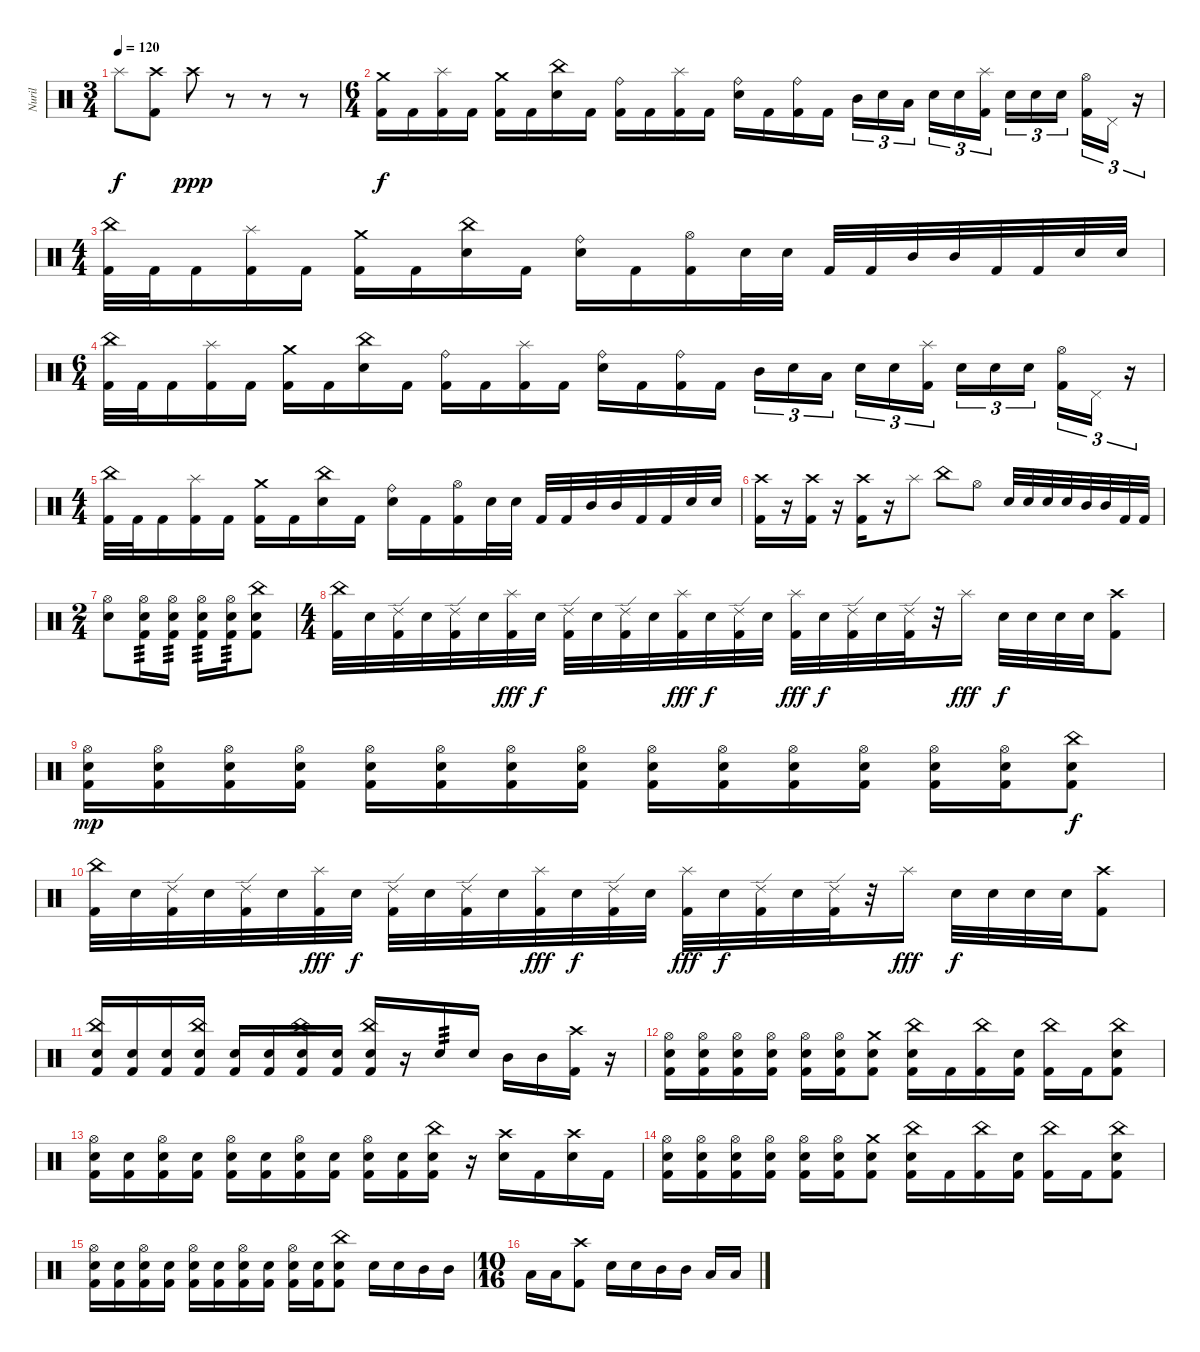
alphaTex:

\track ("Nuril" "Nuril") {instrument percussion}
\staff {score}
\articulation defaults
\ts (3 4)
\tempo 120
\clef neutral
\ks c "Splash (hit)".8{dy f}
("Crash high (hit)" "Kick (hit) 2").8 "Crash high (hit)".8{dy ppp} r.8 r.8 r.8 |
\ts (6 4)
("Crash medium (hit)" "Kick (hit) 2").16{dy f} "Kick (hit) 2".16 ("Splash (hit)" "Kick (hit) 2").16 "Kick (hit) 2".16 ("Crash medium (hit)" "Kick (hit) 2").16 "Kick (hit) 2".16 ("China (hit)" "Electric Snare (hit)").16 "Kick (hit) 2".16 ("Ride (bell)" "Kick (hit) 2").16 "Kick (hit) 2".16 ("Splash (hit)" "Kick (hit) 2").16 "Kick (hit) 2".16 ("Ride (bell)" "Electric Snare (hit)").16 "Kick (hit) 2".16 ("Ride (bell)" "Kick (hit) 2").16 "Kick (hit) 2".16{beam splitsecondary} "Mid Tom (hit)".16{tu (3 2)} "Electric Snare (hit)".16{tu (3 2)} "Low Tom (hit)".16{tu (3 2) beam splitsecondary} "Electric Snare (hit)".16{tu (3 2)} "Electric Snare (hit)".16{tu (3 2)} ("Splash (hit)" "Kick (hit) 2").16{tu (3 2) beam splitsecondary} "Electric Snare (hit)".16{tu (3 2)} "Electric Snare (hit)".16{tu (3 2)} "Electric Snare (hit)".16{tu (3 2) beam splitsecondary} ("Hi-Hat (open)" "Kick (hit) 2").16{tu (3 2)} "Pedal Hi-Hat (hit)".16{tu (3 2)} r.16{tu (3 2)} |
\ts (4 4)
("China (hit)" "Kick (hit) 2").32 "Kick (hit) 2".32 "Kick (hit) 2".16 ("Splash (hit)" "Kick (hit) 2").16 "Kick (hit) 2".16 ("Crash medium (hit)" "Kick (hit) 2").16 "Kick (hit) 2".16 ("China (hit)" "Electric Snare (hit)").16 "Kick (hit) 2".16 ("Ride (bell)" "Electric Snare (hit)").16 "Kick (hit) 2".16 ("Hi-Hat (open)" "Kick (hit) 2").16 "Electric Snare (hit)".32 "Electric Snare (hit)".32 "Kick (hit) 2".32 "Kick (hit) 2".32 "Mid Tom (hit)".32 "Mid Tom (hit)".32 "Kick (hit) 2".32 "Kick (hit) 2".32 "Electric Snare (hit)".32 "Electric Snare (hit)".32 |
\ts (6 4)
("China (hit)" "Kick (hit) 2").32 "Kick (hit) 2".32 "Kick (hit) 2".16 ("Splash (hit)" "Kick (hit) 2").16 "Kick (hit) 2".16 ("Crash medium (hit)" "Kick (hit) 2").16 "Kick (hit) 2".16 ("China (hit)" "Electric Snare (hit)").16 "Kick (hit) 2".16 ("Ride (bell)" "Kick (hit) 2").16 "Kick (hit) 2".16 ("Splash (hit)" "Kick (hit) 2").16 "Kick (hit) 2".16 ("Ride (bell)" "Electric Snare (hit)").16 "Kick (hit) 2".16 ("Ride (bell)" "Kick (hit) 2").16 "Kick (hit) 2".16{beam splitsecondary} "Mid Tom (hit)".16{tu (3 2)} "Electric Snare (hit)".16{tu (3 2)} "Low Tom (hit)".16{tu (3 2) beam splitsecondary} "Electric Snare (hit)".16{tu (3 2)} "Electric Snare (hit)".16{tu (3 2)} ("Splash (hit)" "Kick (hit) 2").16{tu (3 2) beam splitsecondary} "Electric Snare (hit)".16{tu (3 2)} "Electric Snare (hit)".16{tu (3 2)} "Electric Snare (hit)".16{tu (3 2) beam splitsecondary} ("Hi-Hat (open)" "Kick (hit) 2").16{tu (3 2)} "Pedal Hi-Hat (hit)".16{tu (3 2)} r.16{tu (3 2)} |
\ts (4 4)
("China (hit)" "Kick (hit) 2").32 "Kick (hit) 2".32 "Kick (hit) 2".16 ("Splash (hit)" "Kick (hit) 2").16 "Kick (hit) 2".16 ("Crash medium (hit)" "Kick (hit) 2").16 "Kick (hit) 2".16 ("China (hit)" "Electric Snare (hit)").16 "Kick (hit) 2".16 ("Ride (bell)" "Electric Snare (hit)").16 "Kick (hit) 2".16 ("Hi-Hat (open)" "Kick (hit) 2").16 "Electric Snare (hit)".32 "Electric Snare (hit)".32 "Kick (hit) 2".32 "Kick (hit) 2".32 "Mid Tom (hit)".32 "Mid Tom (hit)".32 "Kick (hit) 2".32 "Kick (hit) 2".32 "Electric Snare (hit)".32 "Electric Snare (hit)".32 |
("Crash high (hit)" "Kick (hit) 2").16 r.16 ("Crash high (hit)" "Kick (hit) 2").16 r.16 ("Crash high (hit)" "Kick (hit) 2").16 r.16 "Splash (hit)".8 "China (hit)".8 "Hi-Hat (open)".8 "Electric Snare (hit)".32 "Electric Snare (hit)".32 "Electric Snare (hit)".32 "Electric Snare (hit)".32 "Mid Tom (hit)".32 "Mid Tom (hit)".32 "Kick (hit) 2".32 "Kick (hit) 2".32 |
\ts (2 4)
("Hi-Hat (open)" "Electric Snare (hit)").8 ("Hi-Hat (open)" "Electric Snare (hit)" "Kick (hit) 2").16{tp 3} ("Hi-Hat (open)" "Electric Snare (hit)" "Kick (hit) 2").16{tp 3} ("Hi-Hat (open)" "Electric Snare (hit)" "Kick (hit) 2").16{tp 3} ("Hi-Hat (open)" "Electric Snare (hit)" "Kick (hit) 2").16{tp 3} ("China (hit)" "Electric Snare (hit)" "Kick (hit) 2").8 |
\ts (4 4)
("China (hit)" "Kick (hit) 2").32 "Electric Snare (hit)".32 ("Ride (edge) 2" "Kick (hit) 2").32 "Electric Snare (hit)".32 ("Ride (edge) 2" "Kick (hit) 2").32 "Electric Snare (hit)".32 ("Splash (hit)" "Kick (hit) 2").32{dy fff} "Electric Snare (hit)".32{dy f} ("Ride (edge) 2" "Kick (hit) 2").32 "Electric Snare (hit)".32 ("Ride (edge) 2" "Kick (hit) 2").32 "Electric Snare (hit)".32 ("Splash (hit)" "Kick (hit) 2").32{dy fff} "Electric Snare (hit)".32{dy f} ("Ride (edge) 2" "Kick (hit) 2").32 "Electric Snare (hit)".32 ("Splash (hit)" "Kick (hit) 2").32{dy fff} "Electric Snare (hit)".32{dy f} ("Ride (edge) 2" "Kick (hit) 2").32 "Electric Snare (hit)".32 ("Ride (edge) 2" "Kick (hit) 2").32 r.32 "Splash (hit)".16{dy fff} "Electric Snare (hit)".32{dy f} "Electric Snare (hit)".32 "Electric Snare (hit)".32 "Electric Snare (hit)".32 ("Crash high (hit)" "Kick (hit) 2").8 |
("Hi-Hat (open)" "Electric Snare (hit)" "Kick (hit) 2").16{dy mp} ("Hi-Hat (open)" "Electric Snare (hit)" "Kick (hit) 2").16 ("Hi-Hat (open)" "Electric Snare (hit)" "Kick (hit) 2").16 ("Hi-Hat (open)" "Electric Snare (hit)" "Kick (hit) 2").16 ("Hi-Hat (open)" "Electric Snare (hit)" "Kick (hit) 2").16 ("Hi-Hat (open)" "Electric Snare (hit)" "Kick (hit) 2").16 ("Hi-Hat (open)" "Electric Snare (hit)" "Kick (hit) 2").16 ("Hi-Hat (open)" "Electric Snare (hit)" "Kick (hit) 2").16 ("Hi-Hat (open)" "Electric Snare (hit)" "Kick (hit) 2").16 ("Hi-Hat (open)" "Electric Snare (hit)" "Kick (hit) 2").16 ("Hi-Hat (open)" "Electric Snare (hit)" "Kick (hit) 2").16 ("Hi-Hat (open)" "Electric Snare (hit)" "Kick (hit) 2").16 ("Hi-Hat (open)" "Electric Snare (hit)" "Kick (hit) 2").16 ("Hi-Hat (open)" "Electric Snare (hit)" "Kick (hit) 2").16 ("China (hit)" "Electric Snare (hit)" "Kick (hit) 2").8{dy f} |
("China (hit)" "Kick (hit) 2").32 "Electric Snare (hit)".32 ("Ride (edge) 2" "Kick (hit) 2").32 "Electric Snare (hit)".32 ("Ride (edge) 2" "Kick (hit) 2").32 "Electric Snare (hit)".32 ("Splash (hit)" "Kick (hit) 2").32{dy fff} "Electric Snare (hit)".32{dy f} ("Ride (edge) 2" "Kick (hit) 2").32 "Electric Snare (hit)".32 ("Ride (edge) 2" "Kick (hit) 2").32 "Electric Snare (hit)".32 ("Splash (hit)" "Kick (hit) 2").32{dy fff} "Electric Snare (hit)".32{dy f} ("Ride (edge) 2" "Kick (hit) 2").32 "Electric Snare (hit)".32 ("Splash (hit)" "Kick (hit) 2").32{dy fff} "Electric Snare (hit)".32{dy f} ("Ride (edge) 2" "Kick (hit) 2").32 "Electric Snare (hit)".32 ("Ride (edge) 2" "Kick (hit) 2").32 r.32 "Splash (hit)".16{dy fff} "Electric Snare (hit)".32{dy f} "Electric Snare (hit)".32 "Electric Snare (hit)".32 "Electric Snare (hit)".32 ("Crash high (hit)" "Kick (hit) 2").8 |
("China (hit)" "Electric Snare (hit)" "Kick (hit) 2").16 ("Electric Snare (hit)" "Kick (hit) 2").16 ("Electric Snare (hit)" "Kick (hit) 2").16 ("China (hit)" "Electric Snare (hit)" "Kick (hit) 2").16 ("Electric Snare (hit)" "Kick (hit) 2").16 ("Electric Snare (hit)" "Kick (hit) 2").16 ("China (hit)" "Electric Snare (hit)" "Kick (hit) 2").16 ("Electric Snare (hit)" "Kick (hit) 2").16 ("China (hit)" "Electric Snare (hit)" "Kick (hit) 2").16 r.16 "Electric Snare (hit)".16{tp 3} "Electric Snare (hit)".16 "Mid Tom (hit)".16 "Mid Tom (hit)".16 ("Crash high (hit)" "Kick (hit) 2").16 r.16 |
("Hi-Hat (open)" "Electric Snare (hit)" "Kick (hit) 2").16 ("Hi-Hat (open)" "Electric Snare (hit)" "Kick (hit) 2").16 ("Hi-Hat (open)" "Electric Snare (hit)" "Kick (hit) 2").16 ("Hi-Hat (open)" "Electric Snare (hit)" "Kick (hit) 2").16 ("Hi-Hat (open)" "Electric Snare (hit)" "Kick (hit) 2").16 ("Hi-Hat (open)" "Electric Snare (hit)" "Kick (hit) 2").16 ("Crash medium (hit)" "Electric Snare (hit)" "Kick (hit) 2").8 ("China (hit)" "Electric Snare (hit)" "Kick (hit) 2").16 "Kick (hit) 2".16 ("China (hit)" "Kick (hit) 2").16 ("Electric Snare (hit)" "Kick (hit) 2").16 ("China (hit)" "Kick (hit) 2").16 "Kick (hit) 2".16 ("China (hit)" "Electric Snare (hit)" "Kick (hit) 2").8 |
("Hi-Hat (open)" "Electric Snare (hit)" "Kick (hit) 2").16 ("Electric Snare (hit)" "Kick (hit) 2").16 ("Hi-Hat (open)" "Electric Snare (hit)" "Kick (hit) 2").16 ("Electric Snare (hit)" "Kick (hit) 2").16 ("Hi-Hat (open)" "Electric Snare (hit)" "Kick (hit) 2").16 ("Electric Snare (hit)" "Kick (hit) 2").16 ("Hi-Hat (open)" "Electric Snare (hit)" "Kick (hit) 2").16 ("Electric Snare (hit)" "Kick (hit) 2").16 ("Hi-Hat (open)" "Electric Snare (hit)" "Kick (hit) 2").16 ("Electric Snare (hit)" "Kick (hit) 2").16 ("China (hit)" "Electric Snare (hit)" "Kick (hit) 2").16 r.16 ("Crash high (hit)" "Electric Snare (hit)").16 "Kick (hit) 2".16 ("Crash high (hit)" "Electric Snare (hit)").16 "Kick (hit) 2".16 |
("Hi-Hat (open)" "Electric Snare (hit)" "Kick (hit) 2").16 ("Hi-Hat (open)" "Electric Snare (hit)" "Kick (hit) 2").16 ("Hi-Hat (open)" "Electric Snare (hit)" "Kick (hit) 2").16 ("Hi-Hat (open)" "Electric Snare (hit)" "Kick (hit) 2").16 ("Hi-Hat (open)" "Electric Snare (hit)" "Kick (hit) 2").16 ("Hi-Hat (open)" "Electric Snare (hit)" "Kick (hit) 2").16 ("Crash medium (hit)" "Electric Snare (hit)" "Kick (hit) 2").8 ("China (hit)" "Electric Snare (hit)" "Kick (hit) 2").16 "Kick (hit) 2".16 ("China (hit)" "Kick (hit) 2").16 ("Electric Snare (hit)" "Kick (hit) 2").16 ("China (hit)" "Kick (hit) 2").16 "Kick (hit) 2".16 ("China (hit)" "Electric Snare (hit)" "Kick (hit) 2").8 |
("Hi-Hat (open)" "Electric Snare (hit)" "Kick (hit) 2").16 ("Electric Snare (hit)" "Kick (hit) 2").16 ("Hi-Hat (open)" "Electric Snare (hit)" "Kick (hit) 2").16 ("Electric Snare (hit)" "Kick (hit) 2").16 ("Hi-Hat (open)" "Electric Snare (hit)" "Kick (hit) 2").16 ("Electric Snare (hit)" "Kick (hit) 2").16 ("Hi-Hat (open)" "Electric Snare (hit)" "Kick (hit) 2").16 ("Electric Snare (hit)" "Kick (hit) 2").16 ("Hi-Hat (open)" "Electric Snare (hit)" "Kick (hit) 2").16 ("Electric Snare (hit)" "Kick (hit) 2").16 ("China (hit)" "Electric Snare (hit)" "Kick (hit) 2").8 "Electric Snare (hit)".16 "Electric Snare (hit)".16 "Mid Tom (hit)".16 "Mid Tom (hit)".16 |
\ts (10 16)
"Low Tom (hit)".16 "Low Tom (hit)".16 ("Crash high (hit)" "Kick (hit) 2").8 "Electric Snare (hit)".16 "Electric Snare (hit)".16 "Mid Tom (hit)".16 "Mid Tom (hit)".16 "Low Tom (hit)".16 "Low Tom (hit)".16
